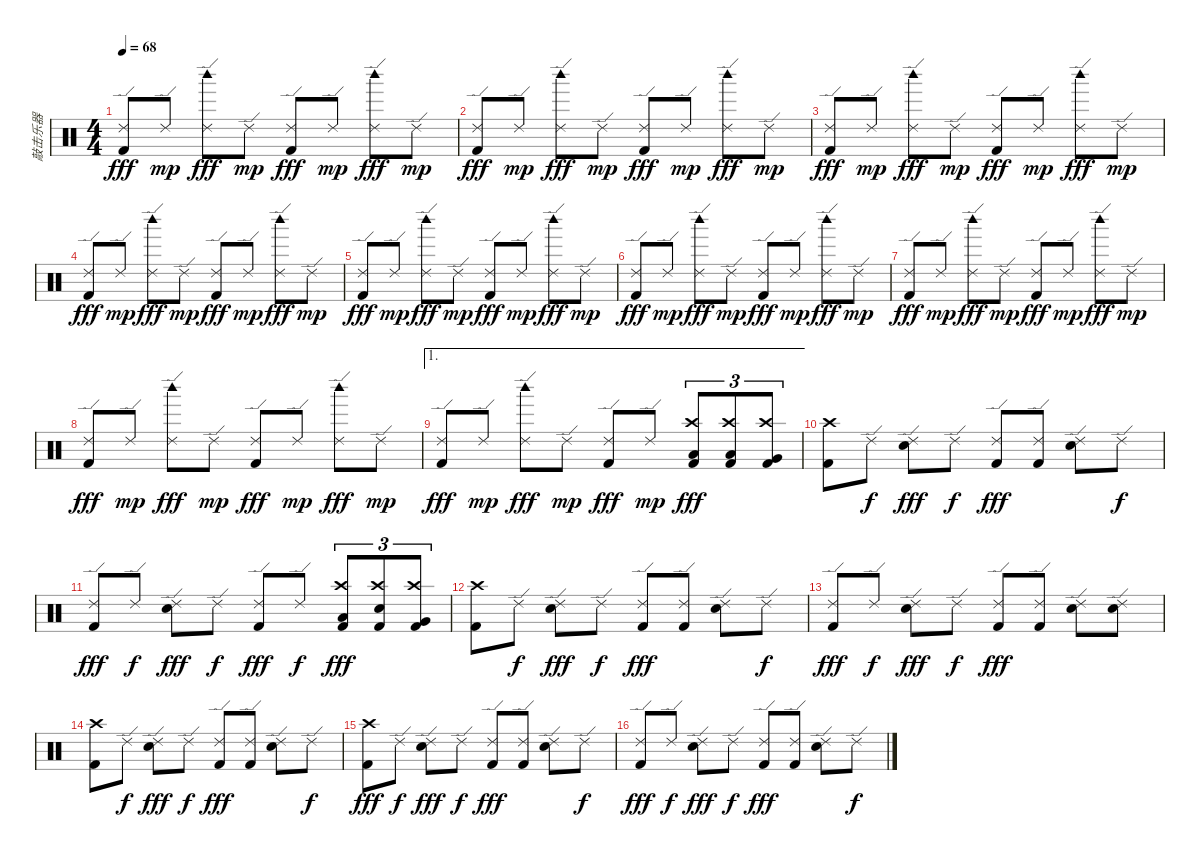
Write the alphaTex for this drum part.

\track ("敲击乐器" "敲击乐器") {instrument percussion}
\staff {score}
\articulation defaults
\ts (4 4)
\tempo 68
\clef neutral
\ks c
("Ride (edge) 2" "Kick (hit) 2").8{dy fff} "Ride (edge) 2".8{dy mp} ("Ride (edge) 2" "Woodblock high (hit)").8{dy fff} "Ride (edge) 2".8{dy mp} ("Ride (edge) 2" "Kick (hit) 2").8{dy fff} "Ride (edge) 2".8{dy mp} ("Ride (edge) 2" "Woodblock high (hit)").8{dy fff} "Ride (edge) 2".8{dy mp} |
("Ride (edge) 2" "Kick (hit) 2").8{dy fff} "Ride (edge) 2".8{dy mp} ("Ride (edge) 2" "Woodblock high (hit)").8{dy fff} "Ride (edge) 2".8{dy mp} ("Ride (edge) 2" "Kick (hit) 2").8{dy fff} "Ride (edge) 2".8{dy mp} ("Ride (edge) 2" "Woodblock high (hit)").8{dy fff} "Ride (edge) 2".8{dy mp} |
("Ride (edge) 2" "Kick (hit) 2").8{dy fff} "Ride (edge) 2".8{dy mp} ("Ride (edge) 2" "Woodblock high (hit)").8{dy fff} "Ride (edge) 2".8{dy mp} ("Ride (edge) 2" "Kick (hit) 2").8{dy fff} "Ride (edge) 2".8{dy mp} ("Ride (edge) 2" "Woodblock high (hit)").8{dy fff} "Ride (edge) 2".8{dy mp} |
("Ride (edge) 2" "Kick (hit) 2").8{dy fff} "Ride (edge) 2".8{dy mp} ("Ride (edge) 2" "Woodblock high (hit)").8{dy fff} "Ride (edge) 2".8{dy mp} ("Ride (edge) 2" "Kick (hit) 2").8{dy fff} "Ride (edge) 2".8{dy mp} ("Ride (edge) 2" "Woodblock high (hit)").8{dy fff} "Ride (edge) 2".8{dy mp} |
("Ride (edge) 2" "Kick (hit) 2").8{dy fff} "Ride (edge) 2".8{dy mp} ("Ride (edge) 2" "Woodblock high (hit)").8{dy fff} "Ride (edge) 2".8{dy mp} ("Ride (edge) 2" "Kick (hit) 2").8{dy fff} "Ride (edge) 2".8{dy mp} ("Ride (edge) 2" "Woodblock high (hit)").8{dy fff} "Ride (edge) 2".8{dy mp} |
("Ride (edge) 2" "Kick (hit) 2").8{dy fff} "Ride (edge) 2".8{dy mp} ("Ride (edge) 2" "Woodblock high (hit)").8{dy fff} "Ride (edge) 2".8{dy mp} ("Ride (edge) 2" "Kick (hit) 2").8{dy fff} "Ride (edge) 2".8{dy mp} ("Ride (edge) 2" "Woodblock high (hit)").8{dy fff} "Ride (edge) 2".8{dy mp} |
("Ride (edge) 2" "Kick (hit) 2").8{dy fff} "Ride (edge) 2".8{dy mp} ("Ride (edge) 2" "Woodblock high (hit)").8{dy fff} "Ride (edge) 2".8{dy mp} ("Ride (edge) 2" "Kick (hit) 2").8{dy fff} "Ride (edge) 2".8{dy mp} ("Ride (edge) 2" "Woodblock high (hit)").8{dy fff} "Ride (edge) 2".8{dy mp} |
("Ride (edge) 2" "Kick (hit) 2").8{dy fff} "Ride (edge) 2".8{dy mp} ("Ride (edge) 2" "Woodblock high (hit)").8{dy fff} "Ride (edge) 2".8{dy mp} ("Ride (edge) 2" "Kick (hit) 2").8{dy fff} "Ride (edge) 2".8{dy mp} ("Ride (edge) 2" "Woodblock high (hit)").8{dy fff} "Ride (edge) 2".8{dy mp} |
\ae 1
("Ride (edge) 2" "Kick (hit) 2").8{dy fff} "Ride (edge) 2".8{dy mp} ("Ride (edge) 2" "Woodblock high (hit)").8{dy fff} "Ride (edge) 2".8{dy mp} ("Ride (edge) 2" "Kick (hit) 2").8{dy fff} "Ride (edge) 2".8{dy mp} ("Crash high (hit)" "Low Tom (hit)" "Kick (hit) 2").8{tu (3 2) dy fff} ("Crash high (hit)" "Low Tom (hit)" "Kick (hit) 2").8{tu (3 2)} ("Crash high (hit)" "Very Low Tom (hit)" "Kick (hit) 2").8{tu (3 2)} |
("Crash high (hit)" "Kick (hit) 2").8 "Ride (edge) 2".8{dy f} ("Ride (edge) 2" "Electric Snare (hit)").8{dy fff} "Ride (edge) 2".8{dy f} ("Ride (edge) 2" "Kick (hit) 2").8{dy fff} ("Ride (edge) 2" "Kick (hit) 2").8 ("Ride (edge) 2" "Electric Snare (hit)").8 "Ride (edge) 2".8{dy f} |
("Ride (edge) 2" "Kick (hit) 2").8{dy fff} "Ride (edge) 2".8{dy f} ("Ride (edge) 2" "Electric Snare (hit)").8{dy fff} "Ride (edge) 2".8{dy f} ("Ride (edge) 2" "Kick (hit) 2").8{dy fff} "Ride (edge) 2".8{dy f} ("Crash high (hit)" "Low Tom (hit)" "Kick (hit) 2").8{tu (3 2) dy fff} ("Crash high (hit)" "Electric Snare (hit)" "Kick (hit) 2").8{tu (3 2)} ("Crash high (hit)" "Very Low Tom (hit)" "Kick (hit) 2").8{tu (3 2)} |
("Crash high (hit)" "Kick (hit) 2").8 "Ride (edge) 2".8{dy f} ("Ride (edge) 2" "Electric Snare (hit)").8{dy fff} "Ride (edge) 2".8{dy f} ("Ride (edge) 2" "Kick (hit) 2").8{dy fff} ("Ride (edge) 2" "Kick (hit) 2").8 ("Ride (edge) 2" "Electric Snare (hit)").8 "Ride (edge) 2".8{dy f} |
("Ride (edge) 2" "Kick (hit) 2").8{dy fff} "Ride (edge) 2".8{dy f} ("Ride (edge) 2" "Electric Snare (hit)").8{dy fff} "Ride (edge) 2".8{dy f} ("Ride (edge) 2" "Kick (hit) 2").8{dy fff} ("Ride (edge) 2" "Kick (hit) 2").8 ("Ride (edge) 2" "Electric Snare (hit)").8 ("Ride (edge) 2" "Electric Snare (hit)").8 |
("Crash high (hit)" "Kick (hit) 2").8 "Ride (edge) 2".8{dy f} ("Ride (edge) 2" "Electric Snare (hit)").8{dy fff} "Ride (edge) 2".8{dy f} ("Ride (edge) 2" "Kick (hit) 2").8{dy fff} ("Ride (edge) 2" "Kick (hit) 2").8 ("Ride (edge) 2" "Electric Snare (hit)").8 "Ride (edge) 2".8{dy f} |
("Crash high (hit)" "Kick (hit) 2").8{dy fff} "Ride (edge) 2".8{dy f} ("Ride (edge) 2" "Electric Snare (hit)").8{dy fff} "Ride (edge) 2".8{dy f} ("Ride (edge) 2" "Kick (hit) 2").8{dy fff} ("Ride (edge) 2" "Kick (hit) 2").8 ("Ride (edge) 2" "Electric Snare (hit)").8 "Ride (edge) 2".8{dy f} |
("Ride (edge) 2" "Kick (hit) 2").8{dy fff} "Ride (edge) 2".8{dy f} ("Ride (edge) 2" "Electric Snare (hit)").8{dy fff} "Ride (edge) 2".8{dy f} ("Ride (edge) 2" "Kick (hit) 2").8{dy fff} ("Ride (edge) 2" "Kick (hit) 2").8 ("Ride (edge) 2" "Electric Snare (hit)").8 "Ride (edge) 2".8{dy f}
